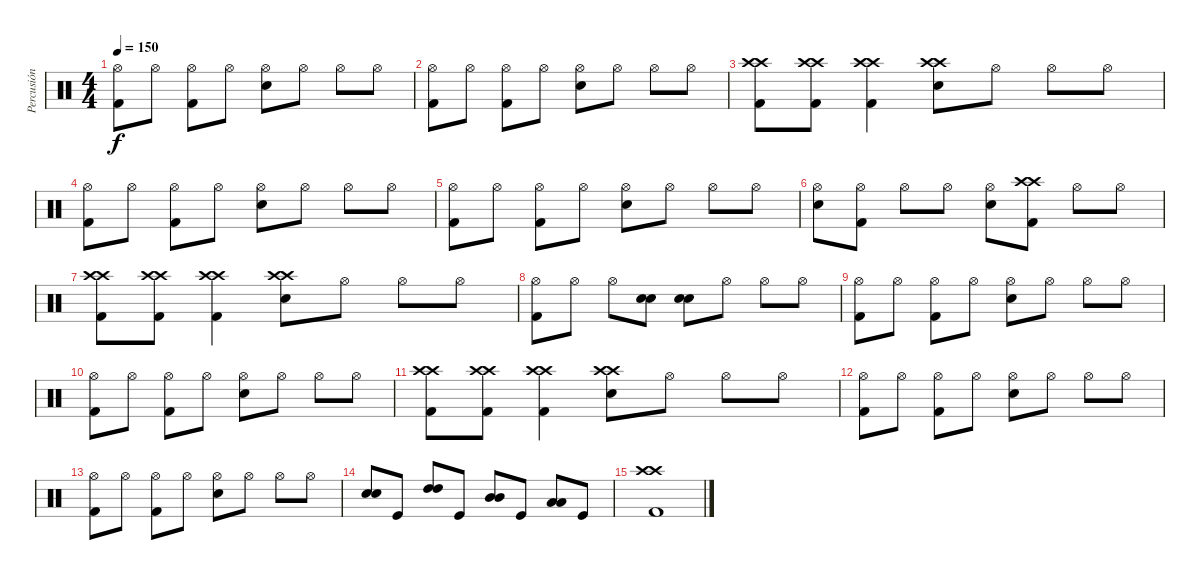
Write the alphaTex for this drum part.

\track ("Percusión" "Percusión") {instrument percussion}
\staff {score}
\articulation defaults
\ts (4 4)
\tempo 150
\clef neutral
\ks c
("Hi-Hat (open)" "Kick (hit) 2").8{dy f} "Hi-Hat (open)".8 ("Hi-Hat (open)" "Kick (hit) 2").8 "Hi-Hat (open)".8 ("Hi-Hat (open)" "Electric Snare (hit)").8 "Hi-Hat (open)".8 "Hi-Hat (open)".8 "Hi-Hat (open)".8 |
("Hi-Hat (open)" "Kick (hit) 2").8 "Hi-Hat (open)".8 ("Hi-Hat (open)" "Kick (hit) 2").8 "Hi-Hat (open)".8 ("Hi-Hat (open)" "Electric Snare (hit)").8 "Hi-Hat (open)".8 "Hi-Hat (open)".8 "Hi-Hat (open)".8 |
("Crash high (hit)" "Crash high (hit)" "Kick (hit) 2").8 ("Crash high (hit)" "Crash high (hit)" "Kick (hit) 2").8 ("Crash high (hit)" "Crash high (hit)" "Kick (hit) 2").4 ("Crash high (hit)" "Crash high (hit)" "Electric Snare (hit)").8 "Hi-Hat (open)".8 "Hi-Hat (open)".8 "Hi-Hat (open)".8 |
("Hi-Hat (open)" "Kick (hit) 2").8 "Hi-Hat (open)".8 ("Hi-Hat (open)" "Kick (hit) 2").8 "Hi-Hat (open)".8 ("Hi-Hat (open)" "Electric Snare (hit)").8 "Hi-Hat (open)".8 "Hi-Hat (open)".8 "Hi-Hat (open)".8 |
("Hi-Hat (open)" "Kick (hit) 2").8 "Hi-Hat (open)".8 ("Hi-Hat (open)" "Kick (hit) 2").8 "Hi-Hat (open)".8 ("Hi-Hat (open)" "Electric Snare (hit)").8 "Hi-Hat (open)".8 "Hi-Hat (open)".8 "Hi-Hat (open)".8 |
("Hi-Hat (open)" "Electric Snare (hit)").8 ("Hi-Hat (open)" "Kick (hit) 2").8 "Hi-Hat (open)".8 "Hi-Hat (open)".8 ("Hi-Hat (open)" "Electric Snare (hit)").8 ("Crash high (hit)" "Crash high (hit)" "Kick (hit) 2").8 "Hi-Hat (open)".8 "Hi-Hat (open)".8 |
("Crash high (hit)" "Crash high (hit)" "Kick (hit) 2").8 ("Crash high (hit)" "Crash high (hit)" "Kick (hit) 2").8 ("Crash high (hit)" "Crash high (hit)" "Kick (hit) 2").4 ("Crash high (hit)" "Crash high (hit)" "Electric Snare (hit)").8 "Hi-Hat (open)".8 "Hi-Hat (open)".8 "Hi-Hat (open)".8 |
("Hi-Hat (open)" "Kick (hit) 2").8 "Hi-Hat (open)".8 "Hi-Hat (open)".8 ("Electric Snare (hit)" "Electric Snare (hit)").8 ("Electric Snare (hit)" "Electric Snare (hit)").8 "Hi-Hat (open)".8 "Hi-Hat (open)".8 "Hi-Hat (open)".8 |
("Hi-Hat (open)" "Kick (hit) 2").8 "Hi-Hat (open)".8 ("Hi-Hat (open)" "Kick (hit) 2").8 "Hi-Hat (open)".8 ("Hi-Hat (open)" "Electric Snare (hit)").8 "Hi-Hat (open)".8 "Hi-Hat (open)".8 "Hi-Hat (open)".8 |
("Hi-Hat (open)" "Kick (hit) 2").8 "Hi-Hat (open)".8 ("Hi-Hat (open)" "Kick (hit) 2").8 "Hi-Hat (open)".8 ("Hi-Hat (open)" "Electric Snare (hit)").8 "Hi-Hat (open)".8 "Hi-Hat (open)".8 "Hi-Hat (open)".8 |
("Crash high (hit)" "Crash high (hit)" "Kick (hit) 2").8 ("Crash high (hit)" "Crash high (hit)" "Kick (hit) 2").8 ("Crash high (hit)" "Crash high (hit)" "Kick (hit) 2").4 ("Crash high (hit)" "Crash high (hit)" "Electric Snare (hit)").8 "Hi-Hat (open)".8 "Hi-Hat (open)".8 "Hi-Hat (open)".8 |
("Hi-Hat (open)" "Kick (hit) 2").8 "Hi-Hat (open)".8 ("Hi-Hat (open)" "Kick (hit) 2").8 "Hi-Hat (open)".8 ("Hi-Hat (open)" "Electric Snare (hit)").8 "Hi-Hat (open)".8 "Hi-Hat (open)".8 "Hi-Hat (open)".8 |
("Hi-Hat (open)" "Kick (hit) 2").8 "Hi-Hat (open)".8 ("Hi-Hat (open)" "Kick (hit) 2").8 "Hi-Hat (open)".8 ("Hi-Hat (open)" "Electric Snare (hit)").8 "Hi-Hat (open)".8 "Hi-Hat (open)".8 "Hi-Hat (open)".8 |
("Electric Snare (hit)" "Electric Snare (hit)").8 "Kick (hit)".8 ("High Tom (hit)" "High Tom (hit)").8 "Kick (hit)".8 ("Mid Tom (hit)" "Mid Tom (hit)").8 "Kick (hit)".8 ("Low Tom (hit)" "Low Tom (hit)").8 "Kick (hit)".8 |
("Crash high (hit)" "Crash high (hit)" "Kick (hit) 2").1
